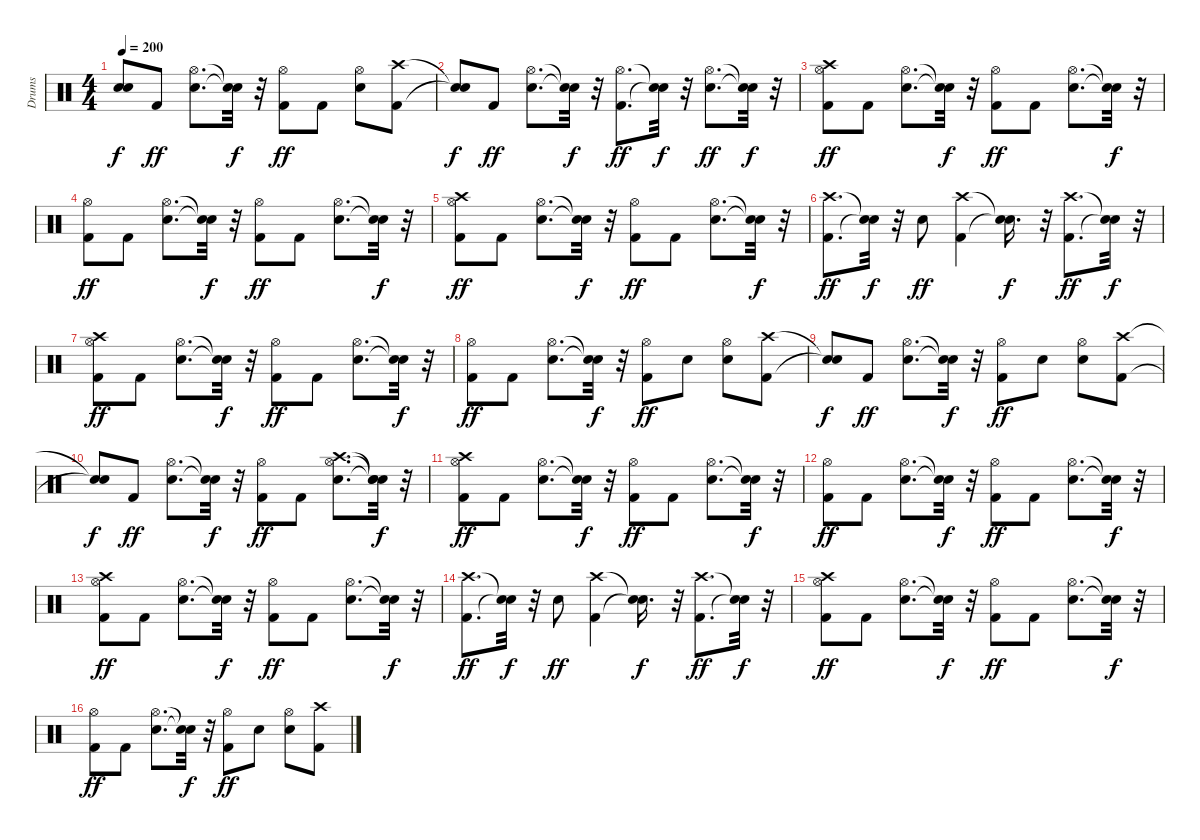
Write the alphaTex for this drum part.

\track ("Drums" "Drums") {instrument percussion}
\staff {score}
\articulation defaults
\ts (4 4)
\tempo 200
\clef neutral
\ks c
("Snare (hit)"{t} "Snare (hit)"{t}).8{dy f} "Kick (hit) 2".8{dy ff} ("Snare (hit) 2" "Hi-Hat (open)").8{d} ("Snare (hit)"{t} "Snare (hit)"{t}).32{dy f} r.32 ("Kick (hit) 2" "Hi-Hat (open)").8{dy ff} "Kick (hit) 2".8 ("Snare (hit) 2" "Hi-Hat (open)").8 ("Kick (hit) 2" "Crash high (hit)").8 |
("Snare (hit)"{t} "Snare (hit)"{t}).8{dy f} "Kick (hit) 2".8{dy ff} ("Snare (hit) 2" "Hi-Hat (open)").8{d} ("Snare (hit)"{t} "Snare (hit)"{t}).32{dy f} r.32 ("Kick (hit) 2" "Hi-Hat (open)").8{d dy ff} ("Snare (hit)"{t} "Snare (hit)"{t}).32{dy f} r.32 ("Snare (hit) 2" "Hi-Hat (open)").8{d dy ff} ("Snare (hit)"{t} "Snare (hit)"{t}).32{dy f} r.32 |
("Kick (hit) 2" "Hi-Hat (open)" "Crash high (hit)").8{dy ff} "Kick (hit) 2".8 ("Snare (hit) 2" "Hi-Hat (open)").8{d} ("Snare (hit)"{t} "Snare (hit)"{t}).32{dy f} r.32 ("Kick (hit) 2" "Hi-Hat (open)").8{dy ff} "Kick (hit) 2".8 ("Snare (hit) 2" "Hi-Hat (open)").8{d} ("Snare (hit)"{t} "Snare (hit)"{t}).32{dy f} r.32 |
("Kick (hit) 2" "Hi-Hat (open)").8{dy ff} "Kick (hit) 2".8 ("Snare (hit) 2" "Hi-Hat (open)").8{d} ("Snare (hit)"{t} "Snare (hit)"{t}).32{dy f} r.32 ("Kick (hit) 2" "Hi-Hat (open)").8{dy ff} "Kick (hit) 2".8 ("Snare (hit) 2" "Hi-Hat (open)").8{d} ("Snare (hit)"{t} "Snare (hit)"{t}).32{dy f} r.32 |
("Kick (hit) 2" "Hi-Hat (open)" "Crash high (hit)").8{dy ff} "Kick (hit) 2".8 ("Snare (hit) 2" "Hi-Hat (open)").8{d} ("Snare (hit)"{t} "Snare (hit)"{t}).32{dy f} r.32 ("Kick (hit) 2" "Hi-Hat (open)").8{dy ff} "Kick (hit) 2".8 ("Snare (hit) 2" "Hi-Hat (open)").8{d} ("Snare (hit)"{t} "Snare (hit)"{t}).32{dy f} r.32 |
("Kick (hit) 2" "Crash high (hit)").8{d dy ff} ("Snare (hit)"{t} "Snare (hit)"{t}).32{dy f} r.32 "Snare (hit) 2".8{dy ff} ("Kick (hit) 2" "Crash high (hit)").4 ("Snare (hit)"{t} "Snare (hit)"{t}).16{d dy f} r.32 ("Kick (hit) 2" "Crash high (hit)").8{d dy ff} ("Snare (hit)"{t} "Snare (hit)"{t}).32{dy f} r.32 |
("Kick (hit) 2" "Hi-Hat (open)" "Crash high (hit)").8{dy ff} "Kick (hit) 2".8 ("Snare (hit) 2" "Hi-Hat (open)").8{d} ("Snare (hit)"{t} "Snare (hit)"{t}).32{dy f} r.32 ("Kick (hit) 2" "Hi-Hat (open)").8{dy ff} "Kick (hit) 2".8 ("Snare (hit) 2" "Hi-Hat (open)").8{d} ("Snare (hit)"{t} "Snare (hit)"{t}).32{dy f} r.32 |
("Kick (hit) 2" "Hi-Hat (open)").8{dy ff} "Kick (hit) 2".8 ("Snare (hit) 2" "Hi-Hat (open)").8{d} ("Snare (hit)"{t} "Snare (hit)"{t}).32{dy f} r.32 ("Kick (hit) 2" "Hi-Hat (open)").8{dy ff} "Snare (hit) 2".8 ("Snare (hit) 2" "Hi-Hat (open)").8 ("Kick (hit) 2" "Crash high (hit)").8 |
("Snare (hit)"{t} "Snare (hit)"{t}).8{dy f} "Kick (hit) 2".8{dy ff} ("Snare (hit) 2" "Hi-Hat (open)").8{d} ("Snare (hit)"{t} "Snare (hit)"{t}).32{dy f} r.32 ("Kick (hit) 2" "Hi-Hat (open)").8{dy ff} "Snare (hit) 2".8 ("Snare (hit) 2" "Hi-Hat (open)").8 ("Kick (hit) 2" "Crash high (hit)").8 |
("Snare (hit)"{t} "Snare (hit)"{t}).8{dy f} "Kick (hit) 2".8{dy ff} ("Snare (hit) 2" "Hi-Hat (open)").8{d} ("Snare (hit)"{t} "Snare (hit)"{t}).32{dy f} r.32 ("Kick (hit) 2" "Hi-Hat (open)").8{dy ff} "Kick (hit) 2".8 ("Snare (hit) 2" "Hi-Hat (open)" "Crash high (hit)").8{d} ("Snare (hit)"{t} "Snare (hit)"{t} "Snare (hit)"{t}).32{dy f} r.32 |
("Kick (hit) 2" "Hi-Hat (open)" "Crash high (hit)").8{dy ff} "Kick (hit) 2".8 ("Snare (hit) 2" "Hi-Hat (open)").8{d} ("Snare (hit)"{t} "Snare (hit)"{t}).32{dy f} r.32 ("Kick (hit) 2" "Hi-Hat (open)").8{dy ff} "Kick (hit) 2".8 ("Snare (hit) 2" "Hi-Hat (open)").8{d} ("Snare (hit)"{t} "Snare (hit)"{t}).32{dy f} r.32 |
("Kick (hit) 2" "Hi-Hat (open)").8{dy ff} "Kick (hit) 2".8 ("Snare (hit) 2" "Hi-Hat (open)").8{d} ("Snare (hit)"{t} "Snare (hit)"{t}).32{dy f} r.32 ("Kick (hit) 2" "Hi-Hat (open)").8{dy ff} "Kick (hit) 2".8 ("Snare (hit) 2" "Hi-Hat (open)").8{d} ("Snare (hit)"{t} "Snare (hit)"{t}).32{dy f} r.32 |
("Kick (hit) 2" "Hi-Hat (open)" "Crash high (hit)").8{dy ff} "Kick (hit) 2".8 ("Snare (hit) 2" "Hi-Hat (open)").8{d} ("Snare (hit)"{t} "Snare (hit)"{t}).32{dy f} r.32 ("Kick (hit) 2" "Hi-Hat (open)").8{dy ff} "Kick (hit) 2".8 ("Snare (hit) 2" "Hi-Hat (open)").8{d} ("Snare (hit)"{t} "Snare (hit)"{t}).32{dy f} r.32 |
("Kick (hit) 2" "Crash high (hit)").8{d dy ff} ("Snare (hit)"{t} "Snare (hit)"{t}).32{dy f} r.32 "Snare (hit) 2".8{dy ff} ("Kick (hit) 2" "Crash high (hit)").4 ("Snare (hit)"{t} "Snare (hit)"{t}).16{d dy f} r.32 ("Kick (hit) 2" "Crash high (hit)").8{d dy ff} ("Snare (hit)"{t} "Snare (hit)"{t}).32{dy f} r.32 |
("Kick (hit) 2" "Hi-Hat (open)" "Crash high (hit)").8{dy ff} "Kick (hit) 2".8 ("Snare (hit) 2" "Hi-Hat (open)").8{d} ("Snare (hit)"{t} "Snare (hit)"{t}).32{dy f} r.32 ("Kick (hit) 2" "Hi-Hat (open)").8{dy ff} "Kick (hit) 2".8 ("Snare (hit) 2" "Hi-Hat (open)").8{d} ("Snare (hit)"{t} "Snare (hit)"{t}).32{dy f} r.32 |
("Kick (hit) 2" "Hi-Hat (open)").8{dy ff} "Kick (hit) 2".8 ("Snare (hit) 2" "Hi-Hat (open)").8{d} ("Snare (hit)"{t} "Snare (hit)"{t}).32{dy f} r.32 ("Kick (hit) 2" "Hi-Hat (open)").8{dy ff} "Snare (hit) 2".8 ("Snare (hit) 2" "Hi-Hat (open)").8 ("Kick (hit) 2" "Crash high (hit)").8
